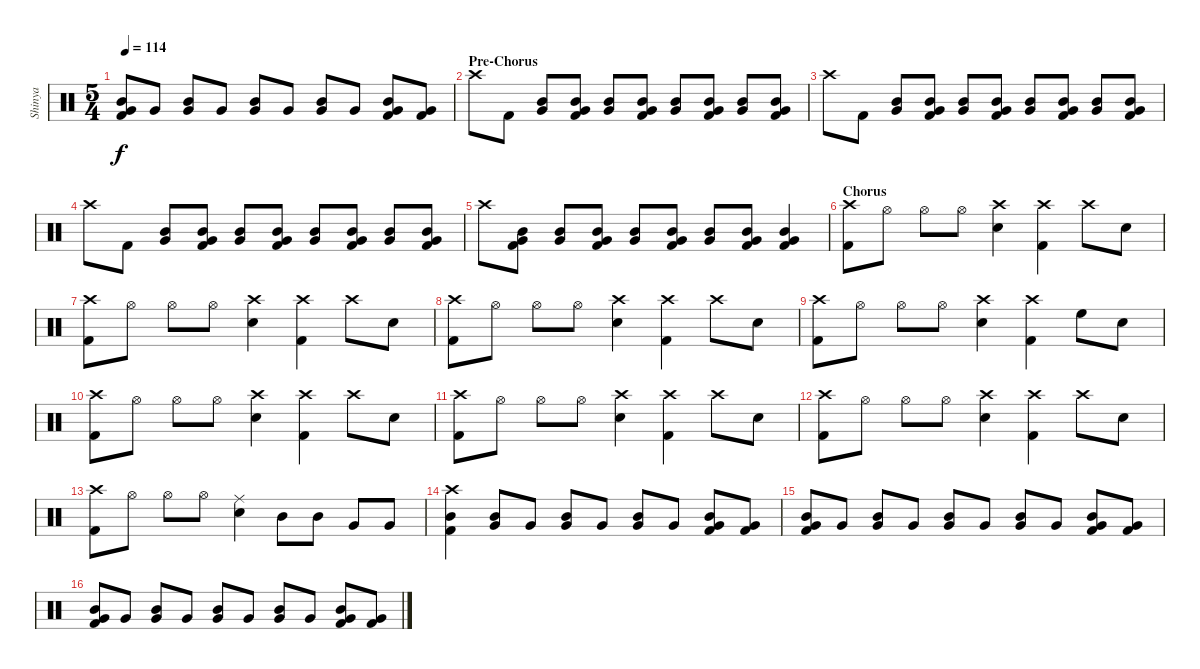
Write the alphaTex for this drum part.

\track ("Shinya" "Shinya") {instrument percussion}
\staff {score}
\articulation defaults
\ts (5 4)
\tempo 114
\clef neutral
\ks c
("Mid Tom (hit)" "Very Low Tom (hit)" "Kick (hit) 2").8{dy f} "Very Low Tom (hit)".8 ("Mid Tom (hit)" "Very Low Tom (hit)").8 "Very Low Tom (hit)".8 ("Mid Tom (hit)" "Very Low Tom (hit)").8 "Very Low Tom (hit)".8 ("Mid Tom (hit)" "Very Low Tom (hit)").8 "Very Low Tom (hit)".8 ("Mid Tom (hit)" "Very Low Tom (hit)" "Kick (hit) 2").8 ("Very Low Tom (hit)" "Kick (hit) 2").8 |
\section ("" "Pre-Chorus")
"Crash high (hit)".8 "Kick (hit) 2".8 ("Mid Tom (hit)" "Very Low Tom (hit)").8 ("Very Low Tom (hit)" "Kick (hit) 2" "Mid Tom (hit)").8 ("Mid Tom (hit)" "Very Low Tom (hit)").8 ("Very Low Tom (hit)" "Kick (hit) 2" "Mid Tom (hit)").8 ("Mid Tom (hit)" "Very Low Tom (hit)").8 ("Very Low Tom (hit)" "Kick (hit) 2" "Mid Tom (hit)").8 ("Mid Tom (hit)" "Very Low Tom (hit)").8 ("Very Low Tom (hit)" "Kick (hit) 2" "Mid Tom (hit)").8 |
"Crash high (hit)".8 "Kick (hit) 2".8 ("Mid Tom (hit)" "Very Low Tom (hit)").8 ("Very Low Tom (hit)" "Kick (hit) 2" "Mid Tom (hit)").8 ("Mid Tom (hit)" "Very Low Tom (hit)").8 ("Very Low Tom (hit)" "Kick (hit) 2" "Mid Tom (hit)").8 ("Mid Tom (hit)" "Very Low Tom (hit)").8 ("Very Low Tom (hit)" "Kick (hit) 2" "Mid Tom (hit)").8 ("Mid Tom (hit)" "Very Low Tom (hit)").8 ("Very Low Tom (hit)" "Kick (hit) 2" "Mid Tom (hit)").8 |
"Crash high (hit)".8 "Kick (hit) 2".8 ("Mid Tom (hit)" "Very Low Tom (hit)").8 ("Very Low Tom (hit)" "Kick (hit) 2" "Mid Tom (hit)").8 ("Mid Tom (hit)" "Very Low Tom (hit)").8 ("Very Low Tom (hit)" "Kick (hit) 2" "Mid Tom (hit)").8 ("Mid Tom (hit)" "Very Low Tom (hit)").8 ("Very Low Tom (hit)" "Kick (hit) 2" "Mid Tom (hit)").8 ("Mid Tom (hit)" "Very Low Tom (hit)").8 ("Very Low Tom (hit)" "Kick (hit) 2" "Mid Tom (hit)").8 |
"Crash high (hit)".8 ("Kick (hit) 2" "Very Low Tom (hit)" "Mid Tom (hit)").8 ("Mid Tom (hit)" "Very Low Tom (hit)").8 ("Very Low Tom (hit)" "Kick (hit) 2" "Mid Tom (hit)").8 ("Mid Tom (hit)" "Very Low Tom (hit)").8 ("Very Low Tom (hit)" "Kick (hit) 2" "Mid Tom (hit)").8 ("Mid Tom (hit)" "Very Low Tom (hit)").8 ("Very Low Tom (hit)" "Kick (hit) 2" "Mid Tom (hit)").8 ("Very Low Tom (hit)" "Mid Tom (hit)" "Kick (hit) 2").4 |
\section ("" "Chorus")
("Crash high (hit)" "Kick (hit) 2").8 "Hi-Hat (open)".8 "Hi-Hat (open)".8 "Hi-Hat (open)".8 ("Crash high (hit)" "Snare (hit) 2").4 ("Crash high (hit)" "Kick (hit) 2").4 "Crash high (hit)".8 "Snare (hit) 2".8 |
("Crash high (hit)" "Kick (hit) 2").8 "Hi-Hat (open)".8 "Hi-Hat (open)".8 "Hi-Hat (open)".8 ("Crash high (hit)" "Snare (hit) 2").4 ("Crash high (hit)" "Kick (hit) 2").4 "Crash high (hit)".8 "Snare (hit) 2".8 |
("Crash high (hit)" "Kick (hit) 2").8 "Hi-Hat (open)".8 "Hi-Hat (open)".8 "Hi-Hat (open)".8 ("Crash high (hit)" "Snare (hit) 2").4 ("Crash high (hit)" "Kick (hit) 2").4 "Crash high (hit)".8 "Snare (hit) 2".8 |
("Crash high (hit)" "Kick (hit) 2").8 "Hi-Hat (open)".8 "Hi-Hat (open)".8 "Hi-Hat (open)".8 ("Crash high (hit)" "Snare (hit) 2").4 ("Crash high (hit)" "Kick (hit) 2").4 "High Floor Tom (hit)".8 "Snare (hit) 2".8 |
("Crash high (hit)" "Kick (hit) 2").8 "Hi-Hat (open)".8 "Hi-Hat (open)".8 "Hi-Hat (open)".8 ("Crash high (hit)" "Snare (hit) 2").4 ("Crash high (hit)" "Kick (hit) 2").4 "Crash high (hit)".8 "Snare (hit) 2".8 |
("Crash high (hit)" "Kick (hit) 2").8 "Hi-Hat (open)".8 "Hi-Hat (open)".8 "Hi-Hat (open)".8 ("Crash high (hit)" "Snare (hit) 2").4 ("Crash high (hit)" "Kick (hit) 2").4 "Crash high (hit)".8 "Snare (hit) 2".8 |
("Crash high (hit)" "Kick (hit) 2").8 "Hi-Hat (open)".8 "Hi-Hat (open)".8 "Hi-Hat (open)".8 ("Crash high (hit)" "Snare (hit) 2").4 ("Crash high (hit)" "Kick (hit) 2").4 "Crash high (hit)".8 "Snare (hit) 2".8 |
("Crash high (hit)" "Kick (hit) 2").8 "Hi-Hat (open)".8 "Hi-Hat (open)".8 "Hi-Hat (open)".8 ("Ride (middle)" "Snare (hit) 2").4 "Mid Tom (hit)".8 "Mid Tom (hit)".8 "Very Low Tom (hit)".8 "Very Low Tom (hit)".8 |
("Crash high (hit)" "Kick (hit) 2" "Mid Tom (hit)").4 ("Mid Tom (hit)" "Very Low Tom (hit)").8 "Very Low Tom (hit)".8 ("Mid Tom (hit)" "Very Low Tom (hit)").8 "Very Low Tom (hit)".8 ("Mid Tom (hit)" "Very Low Tom (hit)").8 "Very Low Tom (hit)".8 ("Mid Tom (hit)" "Very Low Tom (hit)" "Kick (hit) 2").8 ("Very Low Tom (hit)" "Kick (hit) 2").8 |
("Mid Tom (hit)" "Very Low Tom (hit)" "Kick (hit) 2").8 "Very Low Tom (hit)".8 ("Mid Tom (hit)" "Very Low Tom (hit)").8 "Very Low Tom (hit)".8 ("Mid Tom (hit)" "Very Low Tom (hit)").8 "Very Low Tom (hit)".8 ("Mid Tom (hit)" "Very Low Tom (hit)").8 "Very Low Tom (hit)".8 ("Mid Tom (hit)" "Very Low Tom (hit)" "Kick (hit) 2").8 ("Very Low Tom (hit)" "Kick (hit) 2").8 |
("Mid Tom (hit)" "Very Low Tom (hit)" "Kick (hit) 2").8 "Very Low Tom (hit)".8 ("Mid Tom (hit)" "Very Low Tom (hit)").8 "Very Low Tom (hit)".8 ("Mid Tom (hit)" "Very Low Tom (hit)").8 "Very Low Tom (hit)".8 ("Mid Tom (hit)" "Very Low Tom (hit)").8 "Very Low Tom (hit)".8 ("Mid Tom (hit)" "Very Low Tom (hit)" "Kick (hit) 2").8 ("Very Low Tom (hit)" "Kick (hit) 2").8
